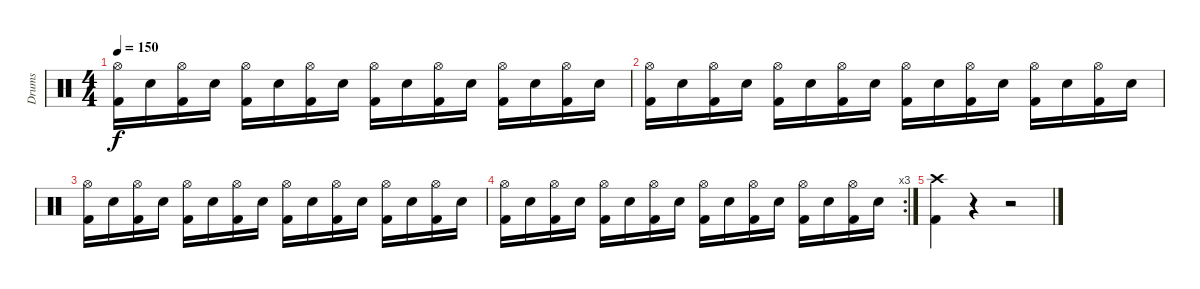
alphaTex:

\track ("Drums" "Drums") {instrument percussion}
\staff {score}
\articulation defaults
\ts (4 4)
\tempo 150
\clef neutral
\ks c
("Hi-Hat (open)" "Kick (hit) 2").16{dy f} "Electric Snare (hit)".16 ("Hi-Hat (open)" "Kick (hit) 2").16 "Electric Snare (hit)".16 ("Hi-Hat (open)" "Kick (hit) 2").16 "Electric Snare (hit)".16 ("Hi-Hat (open)" "Kick (hit) 2").16 "Electric Snare (hit)".16 ("Hi-Hat (open)" "Kick (hit) 2").16 "Electric Snare (hit)".16 ("Hi-Hat (open)" "Kick (hit) 2").16 "Electric Snare (hit)".16 ("Hi-Hat (open)" "Kick (hit) 2").16 "Electric Snare (hit)".16 ("Hi-Hat (open)" "Kick (hit) 2").16 "Electric Snare (hit)".16 |
("Hi-Hat (open)" "Kick (hit) 2").16 "Electric Snare (hit)".16 ("Hi-Hat (open)" "Kick (hit) 2").16 "Electric Snare (hit)".16 ("Hi-Hat (open)" "Kick (hit) 2").16 "Electric Snare (hit)".16 ("Hi-Hat (open)" "Kick (hit) 2").16 "Electric Snare (hit)".16 ("Hi-Hat (open)" "Kick (hit) 2").16 "Electric Snare (hit)".16 ("Hi-Hat (open)" "Kick (hit) 2").16 "Electric Snare (hit)".16 ("Hi-Hat (open)" "Kick (hit) 2").16 "Electric Snare (hit)".16 ("Hi-Hat (open)" "Kick (hit) 2").16 "Electric Snare (hit)".16 |
("Hi-Hat (open)" "Kick (hit) 2").16 "Electric Snare (hit)".16 ("Hi-Hat (open)" "Kick (hit) 2").16 "Electric Snare (hit)".16 ("Hi-Hat (open)" "Kick (hit) 2").16 "Electric Snare (hit)".16 ("Hi-Hat (open)" "Kick (hit) 2").16 "Electric Snare (hit)".16 ("Hi-Hat (open)" "Kick (hit) 2").16 "Electric Snare (hit)".16 ("Hi-Hat (open)" "Kick (hit) 2").16 "Electric Snare (hit)".16 ("Hi-Hat (open)" "Kick (hit) 2").16 "Electric Snare (hit)".16 ("Hi-Hat (open)" "Kick (hit) 2").16 "Electric Snare (hit)".16 |
\rc 3
("Hi-Hat (open)" "Kick (hit) 2").16 "Electric Snare (hit)".16 ("Hi-Hat (open)" "Kick (hit) 2").16 "Electric Snare (hit)".16 ("Hi-Hat (open)" "Kick (hit) 2").16 "Electric Snare (hit)".16 ("Hi-Hat (open)" "Kick (hit) 2").16 "Electric Snare (hit)".16 ("Hi-Hat (open)" "Kick (hit) 2").16 "Electric Snare (hit)".16 ("Hi-Hat (open)" "Kick (hit) 2").16 "Electric Snare (hit)".16 ("Hi-Hat (open)" "Kick (hit) 2").16 "Electric Snare (hit)".16 ("Hi-Hat (open)" "Kick (hit) 2").16 "Electric Snare (hit)".16 |
("Crash high (hit)" "Kick (hit) 2").4 r.4 r.2
